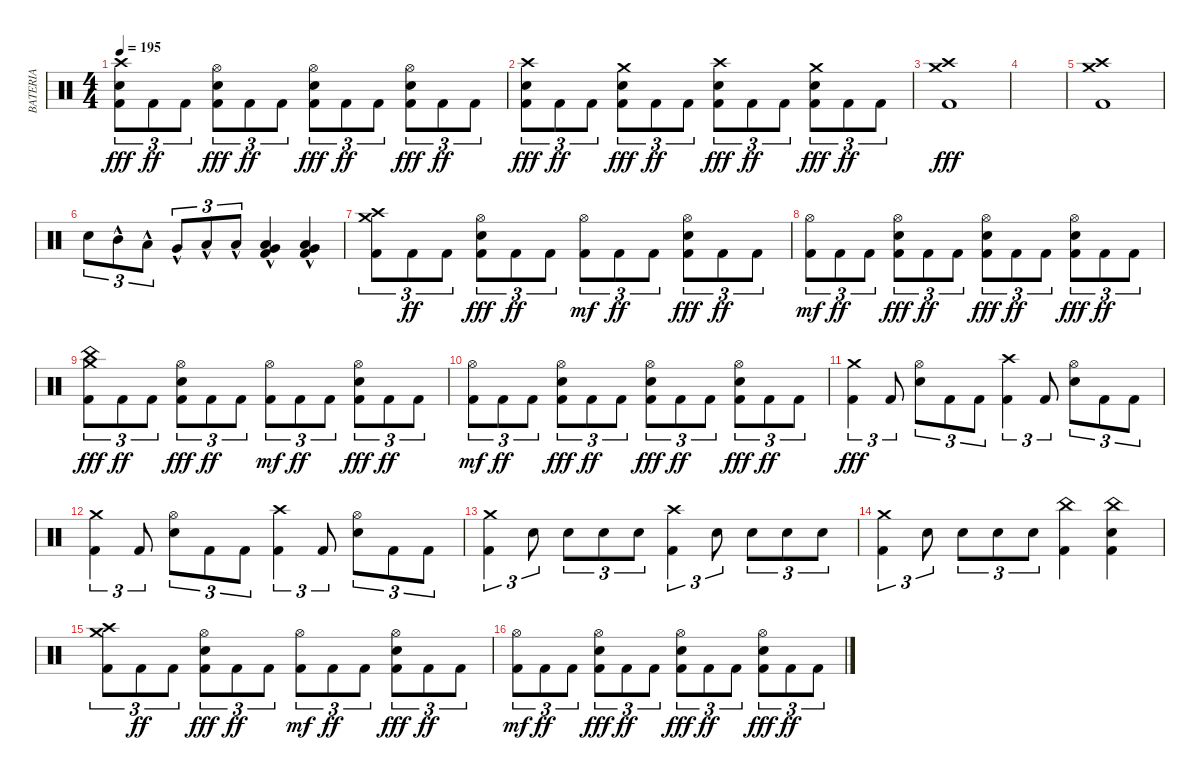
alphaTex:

\track ("BATERIA" "BATERIA") {instrument percussion}
\staff
\articulation defaults
\ts (4 4)
\tempo 195
\clef neutral
\ks c
("Kick (hit) 2" "Electric Snare (hit)" "Crash high (hit)").8{tu (3 2) dy fff} "Kick (hit) 2".8{tu (3 2) dy ff} "Kick (hit) 2".8{tu (3 2)} ("Kick (hit) 2" "Electric Snare (hit)" "Hi-Hat (open)").8{tu (3 2) dy fff} "Kick (hit) 2".8{tu (3 2) dy ff} "Kick (hit) 2".8{tu (3 2)} ("Kick (hit) 2" "Electric Snare (hit)" "Hi-Hat (open)").8{tu (3 2) dy fff} "Kick (hit) 2".8{tu (3 2) dy ff} "Kick (hit) 2".8{tu (3 2)} ("Kick (hit) 2" "Electric Snare (hit)" "Hi-Hat (open)").8{tu (3 2) dy fff} "Kick (hit) 2".8{tu (3 2) dy ff} "Kick (hit) 2".8{tu (3 2)} |
("Kick (hit) 2" "Electric Snare (hit)" "Crash high (hit)").8{tu (3 2) dy fff} "Kick (hit) 2".8{tu (3 2) dy ff} "Kick (hit) 2".8{tu (3 2)} ("Kick (hit) 2" "Electric Snare (hit)" "Crash medium (hit)").8{tu (3 2) dy fff} "Kick (hit) 2".8{tu (3 2) dy ff} "Kick (hit) 2".8{tu (3 2)} ("Kick (hit) 2" "Electric Snare (hit)" "Crash high (hit)").8{tu (3 2) dy fff} "Kick (hit) 2".8{tu (3 2) dy ff} "Kick (hit) 2".8{tu (3 2)} ("Kick (hit) 2" "Electric Snare (hit)" "Crash medium (hit)").8{tu (3 2) dy fff} "Kick (hit) 2".8{tu (3 2) dy ff} "Kick (hit) 2".8{tu (3 2)} |
("Kick (hit) 2" "Crash high (hit)" "Crash medium (hit)").1{dy fff} |
|
("Kick (hit) 2" "Crash high (hit)" "Crash medium (hit)").1 |
"Electric Snare (hit)".8{tu (3 2)} "Mid Tom (hit)"{hac}.8{tu (3 2)} "Low Tom (hit)"{hac}.8{tu (3 2)} "Very Low Tom (hit)"{hac}.8{tu (3 2)} "Low Floor Tom (hit)"{hac}.8{tu (3 2)} "Low Floor Tom (hit)"{hac}.8{tu (3 2)} ("Kick (hit) 2" "Very Low Tom (hit)"{hac} "Low Floor Tom (hit)"{hac}).4 ("Kick (hit) 2" "Very Low Tom (hit)"{hac} "Low Floor Tom (hit)"{hac}).4 |
("Kick (hit) 2" "Crash high (hit)" "Crash medium (hit)").8{tu (3 2)} "Kick (hit) 2".8{tu (3 2) dy ff} "Kick (hit) 2".8{tu (3 2)} ("Kick (hit) 2" "Electric Snare (hit)" "Hi-Hat (open)").8{tu (3 2) dy fff} "Kick (hit) 2".8{tu (3 2) dy ff} "Kick (hit) 2".8{tu (3 2)} ("Kick (hit) 2" "Hi-Hat (open)").8{tu (3 2) dy mf} "Kick (hit) 2".8{tu (3 2) dy ff} "Kick (hit) 2".8{tu (3 2)} ("Kick (hit) 2" "Electric Snare (hit)" "Hi-Hat (open)").8{tu (3 2) dy fff} "Kick (hit) 2".8{tu (3 2) dy ff} "Kick (hit) 2".8{tu (3 2)} |
("Kick (hit) 2" "Hi-Hat (open)").8{tu (3 2) dy mf} "Kick (hit) 2".8{tu (3 2) dy ff} "Kick (hit) 2".8{tu (3 2)} ("Kick (hit) 2" "Electric Snare (hit)" "Hi-Hat (open)").8{tu (3 2) dy fff} "Kick (hit) 2".8{tu (3 2) dy ff} "Kick (hit) 2".8{tu (3 2)} ("Kick (hit) 2" "Electric Snare (hit)" "Hi-Hat (open)").8{tu (3 2) dy fff} "Kick (hit) 2".8{tu (3 2) dy ff} "Kick (hit) 2".8{tu (3 2)} ("Kick (hit) 2" "Electric Snare (hit)" "Hi-Hat (open)").8{tu (3 2) dy fff} "Kick (hit) 2".8{tu (3 2) dy ff} "Kick (hit) 2".8{tu (3 2)} |
("Kick (hit) 2" "Crash medium (hit)" "China (hit)").8{tu (3 2) dy fff} "Kick (hit) 2".8{tu (3 2) dy ff} "Kick (hit) 2".8{tu (3 2)} ("Kick (hit) 2" "Electric Snare (hit)" "Hi-Hat (open)").8{tu (3 2) dy fff} "Kick (hit) 2".8{tu (3 2) dy ff} "Kick (hit) 2".8{tu (3 2)} ("Kick (hit) 2" "Hi-Hat (open)").8{tu (3 2) dy mf} "Kick (hit) 2".8{tu (3 2) dy ff} "Kick (hit) 2".8{tu (3 2)} ("Kick (hit) 2" "Electric Snare (hit)" "Hi-Hat (open)").8{tu (3 2) dy fff} "Kick (hit) 2".8{tu (3 2) dy ff} "Kick (hit) 2".8{tu (3 2)} |
("Kick (hit) 2" "Hi-Hat (open)").8{tu (3 2) dy mf} "Kick (hit) 2".8{tu (3 2) dy ff} "Kick (hit) 2".8{tu (3 2)} ("Kick (hit) 2" "Electric Snare (hit)" "Hi-Hat (open)").8{tu (3 2) dy fff} "Kick (hit) 2".8{tu (3 2) dy ff} "Kick (hit) 2".8{tu (3 2)} ("Kick (hit) 2" "Electric Snare (hit)" "Hi-Hat (open)").8{tu (3 2) dy fff} "Kick (hit) 2".8{tu (3 2) dy ff} "Kick (hit) 2".8{tu (3 2)} ("Kick (hit) 2" "Electric Snare (hit)" "Hi-Hat (open)").8{tu (3 2) dy fff} "Kick (hit) 2".8{tu (3 2) dy ff} "Kick (hit) 2".8{tu (3 2)} |
("Kick (hit) 2" "Crash medium (hit)").4{tu (3 2) dy fff} "Kick (hit) 2".8{tu (3 2)} ("Electric Snare (hit)" "Hi-Hat (open)").8{tu (3 2)} "Kick (hit) 2".8{tu (3 2)} "Kick (hit) 2".8{tu (3 2)} ("Kick (hit) 2" "Crash high (hit)").4{tu (3 2)} "Kick (hit) 2".8{tu (3 2)} ("Electric Snare (hit)" "Hi-Hat (open)").8{tu (3 2)} "Kick (hit) 2".8{tu (3 2)} "Kick (hit) 2".8{tu (3 2)} |
("Kick (hit) 2" "Crash medium (hit)").4{tu (3 2)} "Kick (hit) 2".8{tu (3 2)} ("Electric Snare (hit)" "Hi-Hat (open)").8{tu (3 2)} "Kick (hit) 2".8{tu (3 2)} "Kick (hit) 2".8{tu (3 2)} ("Kick (hit) 2" "Crash high (hit)").4{tu (3 2)} "Kick (hit) 2".8{tu (3 2)} ("Electric Snare (hit)" "Hi-Hat (open)").8{tu (3 2)} "Kick (hit) 2".8{tu (3 2)} "Kick (hit) 2".8{tu (3 2)} |
("Kick (hit) 2" "Crash medium (hit)").4{tu (3 2)} "Electric Snare (hit)".8{tu (3 2)} "Electric Snare (hit)".8{tu (3 2)} "Electric Snare (hit)".8{tu (3 2)} "Electric Snare (hit)".8{tu (3 2)} ("Kick (hit) 2" "Crash high (hit)").4{tu (3 2)} "Electric Snare (hit)".8{tu (3 2)} "Electric Snare (hit)".8{tu (3 2)} "Electric Snare (hit)".8{tu (3 2)} "Electric Snare (hit)".8{tu (3 2)} |
("Kick (hit) 2" "Crash medium (hit)").4{tu (3 2)} "Electric Snare (hit)".8{tu (3 2)} "Electric Snare (hit)".8{tu (3 2)} "Electric Snare (hit)".8{tu (3 2)} "Electric Snare (hit)".8{tu (3 2)} ("Kick (hit) 2" "China (hit)").4 ("Kick (hit) 2" "Electric Snare (hit)" "China (hit)").4 |
("Kick (hit) 2" "Crash high (hit)" "Crash medium (hit)").8{tu (3 2)} "Kick (hit) 2".8{tu (3 2) dy ff} "Kick (hit) 2".8{tu (3 2)} ("Kick (hit) 2" "Electric Snare (hit)" "Hi-Hat (open)").8{tu (3 2) dy fff} "Kick (hit) 2".8{tu (3 2) dy ff} "Kick (hit) 2".8{tu (3 2)} ("Kick (hit) 2" "Hi-Hat (open)").8{tu (3 2) dy mf} "Kick (hit) 2".8{tu (3 2) dy ff} "Kick (hit) 2".8{tu (3 2)} ("Kick (hit) 2" "Electric Snare (hit)" "Hi-Hat (open)").8{tu (3 2) dy fff} "Kick (hit) 2".8{tu (3 2) dy ff} "Kick (hit) 2".8{tu (3 2)} |
("Kick (hit) 2" "Hi-Hat (open)").8{tu (3 2) dy mf} "Kick (hit) 2".8{tu (3 2) dy ff} "Kick (hit) 2".8{tu (3 2)} ("Kick (hit) 2" "Electric Snare (hit)" "Hi-Hat (open)").8{tu (3 2) dy fff} "Kick (hit) 2".8{tu (3 2) dy ff} "Kick (hit) 2".8{tu (3 2)} ("Kick (hit) 2" "Electric Snare (hit)" "Hi-Hat (open)").8{tu (3 2) dy fff} "Kick (hit) 2".8{tu (3 2) dy ff} "Kick (hit) 2".8{tu (3 2)} ("Kick (hit) 2" "Electric Snare (hit)" "Hi-Hat (open)").8{tu (3 2) dy fff} "Kick (hit) 2".8{tu (3 2) dy ff} "Kick (hit) 2".8{tu (3 2)}
